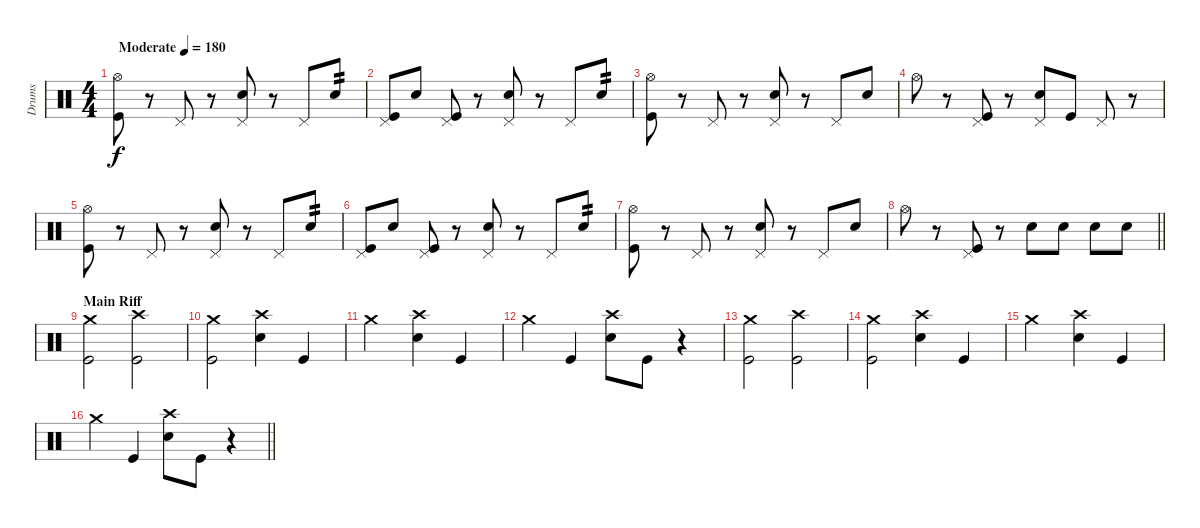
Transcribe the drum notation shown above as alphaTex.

\track ("Drums" "Drums") {instrument percussion}
\staff {score}
\articulation defaults
\ts (4 4)
\tempo (180 "Moderate")
\clef neutral
\ks c
("Hi-Hat (open)" "Kick (hit)").8{dy f} r.8 "Pedal Hi-Hat (hit)".8 r.8 ("Pedal Hi-Hat (hit)" "Snare (hit) 2").8 r.8 "Pedal Hi-Hat (hit)".8 "Snare (hit) 2".8{tp 2} |
("Pedal Hi-Hat (hit)" "Kick (hit)").8 "Snare (hit) 2".8 ("Pedal Hi-Hat (hit)" "Kick (hit)").8 r.8 ("Pedal Hi-Hat (hit)" "Snare (hit) 2").8 r.8 "Pedal Hi-Hat (hit)".8 "Snare (hit) 2".8{tp 2} |
("Hi-Hat (open)" "Kick (hit)").8 r.8 "Pedal Hi-Hat (hit)".8 r.8 ("Pedal Hi-Hat (hit)" "Snare (hit) 2").8 r.8 "Pedal Hi-Hat (hit)".8 "Snare (hit) 2".8 |
"Hi-Hat (open)".8 r.8 ("Pedal Hi-Hat (hit)" "Kick (hit)").8 r.8 ("Pedal Hi-Hat (hit)" "Snare (hit) 2").8 "Kick (hit)".8 "Pedal Hi-Hat (hit)".8 r.8 |
("Hi-Hat (open)" "Kick (hit)").8 r.8 "Pedal Hi-Hat (hit)".8 r.8 ("Pedal Hi-Hat (hit)" "Snare (hit) 2").8 r.8 "Pedal Hi-Hat (hit)".8 "Snare (hit) 2".8{tp 2} |
("Pedal Hi-Hat (hit)" "Kick (hit)").8 "Snare (hit) 2".8 ("Pedal Hi-Hat (hit)" "Kick (hit)").8 r.8 ("Pedal Hi-Hat (hit)" "Snare (hit) 2").8 r.8 "Pedal Hi-Hat (hit)".8 "Snare (hit) 2".8{tp 2} |
("Hi-Hat (open)" "Kick (hit)").8 r.8 "Pedal Hi-Hat (hit)".8 r.8 ("Pedal Hi-Hat (hit)" "Snare (hit) 2").8 r.8 "Pedal Hi-Hat (hit)".8 "Snare (hit) 2".8 |
\barLineRight lightlight "Hi-Hat (open)".8
r.8 ("Pedal Hi-Hat (hit)" "Kick (hit)").8 r.8 "Snare (hit) 2".8 "Snare (hit) 2".8 "Snare (hit) 2".8 "Snare (hit) 2".8 |
\section ("" "Main Riff")
("Crash medium (hit)" "Kick (hit)").2 ("Crash high (hit)" "Kick (hit)").2 |
("Crash medium (hit)" "Kick (hit)").2 ("Crash high (hit)" "Snare (hit) 2").4 "Kick (hit)".4 |
"Crash medium (hit)".2 ("Crash high (hit)" "Snare (hit) 2").4 "Kick (hit)".4 |
"Crash medium (hit)".4 "Kick (hit)".4 ("Crash high (hit)" "Snare (hit) 2").8 "Kick (hit)".8 r.4 |
("Crash medium (hit)" "Kick (hit)").2 ("Crash high (hit)" "Kick (hit)").2 |
("Crash medium (hit)" "Kick (hit)").2 ("Crash high (hit)" "Snare (hit) 2").4 "Kick (hit)".4 |
"Crash medium (hit)".2 ("Crash high (hit)" "Snare (hit) 2").4 "Kick (hit)".4 |
\barLineRight lightlight "Crash medium (hit)".4 "Kick (hit)".4
("Crash high (hit)" "Snare (hit) 2").8 "Kick (hit)".8 r.4
